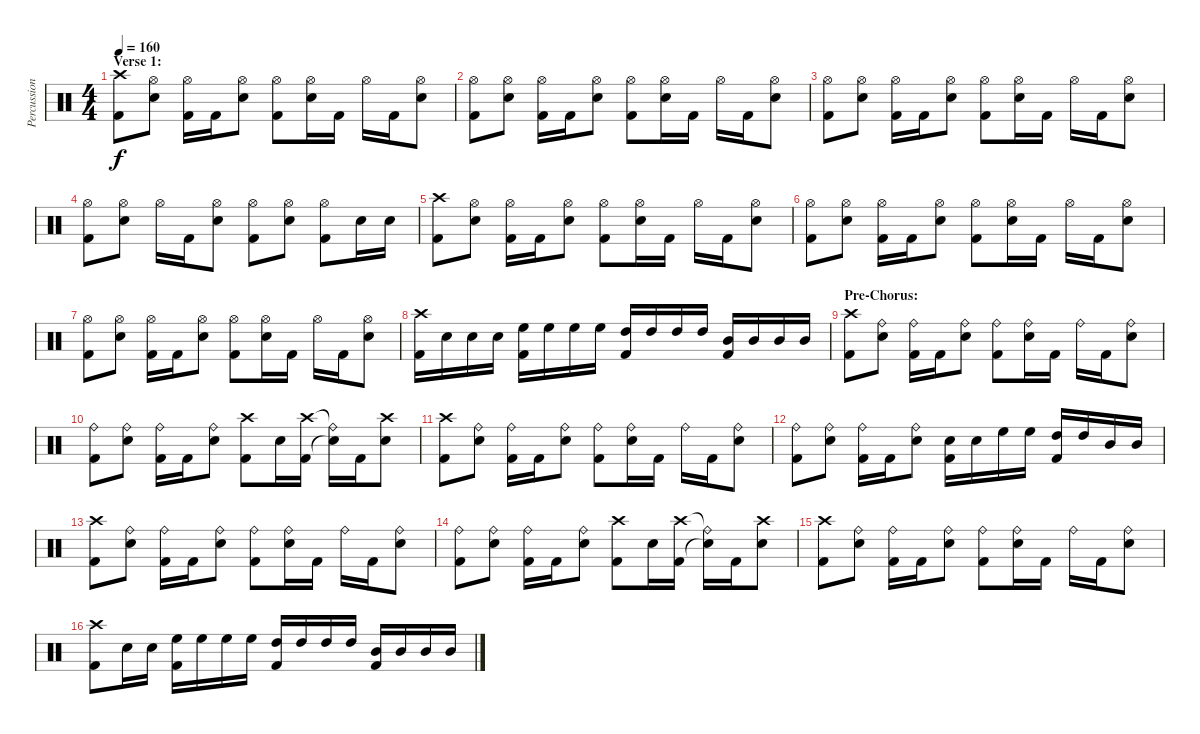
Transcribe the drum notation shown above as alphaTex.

\track ("Percussion" "Percussion") {instrument percussion}
\staff {score}
\articulation defaults
\ts (4 4)
\section ("" "Verse 1:")
\tempo 160
\clef neutral
\ks c
("Crash high (hit)" "Kick (hit) 2").8{dy f} ("Hi-Hat (open)" "Electric Snare (hit)").8 ("Hi-Hat (open)" "Kick (hit) 2").16 "Kick (hit) 2".16 ("Hi-Hat (open)" "Electric Snare (hit)").8 ("Hi-Hat (open)" "Kick (hit) 2").8 ("Hi-Hat (open)" "Electric Snare (hit)").16 "Kick (hit) 2".16 "Hi-Hat (open)".16 "Kick (hit) 2".16 ("Hi-Hat (open)" "Electric Snare (hit)").8 |
("Hi-Hat (open)" "Kick (hit) 2").8 ("Hi-Hat (open)" "Electric Snare (hit)").8 ("Hi-Hat (open)" "Kick (hit) 2").16 "Kick (hit) 2".16 ("Hi-Hat (open)" "Electric Snare (hit)").8 ("Hi-Hat (open)" "Kick (hit) 2").8 ("Hi-Hat (open)" "Electric Snare (hit)").16 "Kick (hit) 2".16 "Hi-Hat (open)".16 "Kick (hit) 2".16 ("Hi-Hat (open)" "Electric Snare (hit)").8 |
("Hi-Hat (open)" "Kick (hit) 2").8 ("Hi-Hat (open)" "Electric Snare (hit)").8 ("Hi-Hat (open)" "Kick (hit) 2").16 "Kick (hit) 2".16 ("Hi-Hat (open)" "Electric Snare (hit)").8 ("Hi-Hat (open)" "Kick (hit) 2").8 ("Hi-Hat (open)" "Electric Snare (hit)").16 "Kick (hit) 2".16 "Hi-Hat (open)".16 "Kick (hit) 2".16 ("Hi-Hat (open)" "Electric Snare (hit)").8 |
("Hi-Hat (open)" "Kick (hit) 2").8 ("Hi-Hat (open)" "Electric Snare (hit)").8 "Hi-Hat (open)".16 "Kick (hit) 2".16 ("Hi-Hat (open)" "Electric Snare (hit)").8 ("Hi-Hat (open)" "Kick (hit) 2").8 ("Hi-Hat (open)" "Electric Snare (hit)").8 ("Hi-Hat (open)" "Kick (hit) 2").8 "Electric Snare (hit)".16 "Electric Snare (hit)".16 |
("Crash high (hit)" "Kick (hit) 2").8 ("Hi-Hat (open)" "Electric Snare (hit)").8 ("Hi-Hat (open)" "Kick (hit) 2").16 "Kick (hit) 2".16 ("Hi-Hat (open)" "Electric Snare (hit)").8 ("Hi-Hat (open)" "Kick (hit) 2").8 ("Hi-Hat (open)" "Electric Snare (hit)").16 "Kick (hit) 2".16 "Hi-Hat (open)".16 "Kick (hit) 2".16 ("Hi-Hat (open)" "Electric Snare (hit)").8 |
("Hi-Hat (open)" "Kick (hit) 2").8 ("Hi-Hat (open)" "Electric Snare (hit)").8 ("Hi-Hat (open)" "Kick (hit) 2").16 "Kick (hit) 2".16 ("Hi-Hat (open)" "Electric Snare (hit)").8 ("Hi-Hat (open)" "Kick (hit) 2").8 ("Hi-Hat (open)" "Electric Snare (hit)").16 "Kick (hit) 2".16 "Hi-Hat (open)".16 "Kick (hit) 2".16 ("Hi-Hat (open)" "Electric Snare (hit)").8 |
("Hi-Hat (open)" "Kick (hit) 2").8 ("Hi-Hat (open)" "Electric Snare (hit)").8 ("Hi-Hat (open)" "Kick (hit) 2").16 "Kick (hit) 2".16 ("Hi-Hat (open)" "Electric Snare (hit)").8 ("Hi-Hat (open)" "Kick (hit) 2").8 ("Hi-Hat (open)" "Electric Snare (hit)").16 "Kick (hit) 2".16 "Hi-Hat (open)".16 "Kick (hit) 2".16 ("Hi-Hat (open)" "Electric Snare (hit)").8 |
("Crash high (hit)" "Kick (hit) 2").16 "Electric Snare (hit)".16 "Electric Snare (hit)".16 "Electric Snare (hit)".16 ("High Floor Tom (hit)" "Kick (hit) 2").16 "High Floor Tom (hit)".16 "High Floor Tom (hit)".16 "High Floor Tom (hit)".16 ("High Tom (hit)" "Kick (hit) 2").16 "High Tom (hit)".16 "High Tom (hit)".16 "High Tom (hit)".16 ("Mid Tom (hit)" "Kick (hit) 2").16 "Mid Tom (hit)".16 "Mid Tom (hit)".16 "Mid Tom (hit)".16 |
\section ("" "Pre-Chorus:")
("Crash high (hit)" "Kick (hit) 2").8 ("Ride (bell)" "Electric Snare (hit)").8 ("Ride (bell)" "Kick (hit) 2").16 "Kick (hit) 2".16 ("Ride (bell)" "Electric Snare (hit)").8 ("Ride (bell)" "Kick (hit) 2").8 ("Ride (bell)" "Electric Snare (hit)").16 "Kick (hit) 2".16 "Ride (bell)".16 "Kick (hit) 2".16 ("Ride (bell)" "Electric Snare (hit)").8 |
("Ride (bell)" "Kick (hit) 2").8 ("Ride (bell)" "Electric Snare (hit)").8 ("Ride (bell)" "Kick (hit) 2").16 "Kick (hit) 2".16 ("Ride (bell)" "Electric Snare (hit)").8 ("Crash high (hit)" "Kick (hit) 2").8 "Electric Snare (hit)".16 ("Crash high (hit)" "Kick (hit) 2").16 ("Ride (bell)"{t} "Snare (hit)"{t}).16 "Kick (hit) 2".16 ("Crash high (hit)" "Electric Snare (hit)").8 |
("Crash high (hit)" "Kick (hit) 2").8 ("Ride (bell)" "Electric Snare (hit)").8 ("Ride (bell)" "Kick (hit) 2").16 "Kick (hit) 2".16 ("Ride (bell)" "Electric Snare (hit)").8 ("Ride (bell)" "Kick (hit) 2").8 ("Ride (bell)" "Electric Snare (hit)").16 "Kick (hit) 2".16 "Ride (bell)".16 "Kick (hit) 2".16 ("Ride (bell)" "Electric Snare (hit)").8 |
("Ride (bell)" "Kick (hit) 2").8 ("Ride (bell)" "Electric Snare (hit)").8 ("Ride (bell)" "Kick (hit) 2").16 "Kick (hit) 2".16 ("Ride (bell)" "Electric Snare (hit)").8 ("Electric Snare (hit)" "Kick (hit) 2").16 "Electric Snare (hit)".16 "High Floor Tom (hit)".16 "High Floor Tom (hit)".16 ("High Tom (hit)" "Kick (hit) 2").16 "High Tom (hit)".16 "Mid Tom (hit)".16 "Mid Tom (hit)".16 |
("Crash high (hit)" "Kick (hit) 2").8 ("Ride (bell)" "Electric Snare (hit)").8 ("Ride (bell)" "Kick (hit) 2").16 "Kick (hit) 2".16 ("Ride (bell)" "Electric Snare (hit)").8 ("Ride (bell)" "Kick (hit) 2").8 ("Ride (bell)" "Electric Snare (hit)").16 "Kick (hit) 2".16 "Ride (bell)".16 "Kick (hit) 2".16 ("Ride (bell)" "Electric Snare (hit)").8 |
("Ride (bell)" "Kick (hit) 2").8 ("Ride (bell)" "Electric Snare (hit)").8 ("Ride (bell)" "Kick (hit) 2").16 "Kick (hit) 2".16 ("Ride (bell)" "Electric Snare (hit)").8 ("Crash high (hit)" "Kick (hit) 2").8 "Electric Snare (hit)".16 ("Crash high (hit)" "Kick (hit) 2").16 ("Ride (bell)"{t} "Snare (hit)"{t}).16 "Kick (hit) 2".16 ("Crash high (hit)" "Electric Snare (hit)").8 |
("Crash high (hit)" "Kick (hit) 2").8 ("Ride (bell)" "Electric Snare (hit)").8 ("Ride (bell)" "Kick (hit) 2").16 "Kick (hit) 2".16 ("Ride (bell)" "Electric Snare (hit)").8 ("Ride (bell)" "Kick (hit) 2").8 ("Ride (bell)" "Electric Snare (hit)").16 "Kick (hit) 2".16 "Ride (bell)".16 "Kick (hit) 2".16 ("Ride (bell)" "Electric Snare (hit)").8 |
("Crash high (hit)" "Kick (hit) 2").8 "Electric Snare (hit)".16 "Electric Snare (hit)".16 ("High Floor Tom (hit)" "Kick (hit) 2").16 "High Floor Tom (hit)".16 "High Floor Tom (hit)".16 "High Floor Tom (hit)".16 ("High Tom (hit)" "Kick (hit) 2").16 "High Tom (hit)".16 "High Tom (hit)".16 "High Tom (hit)".16 ("Mid Tom (hit)" "Kick (hit) 2").16 "Mid Tom (hit)".16 "Mid Tom (hit)".16 "Mid Tom (hit)".16
